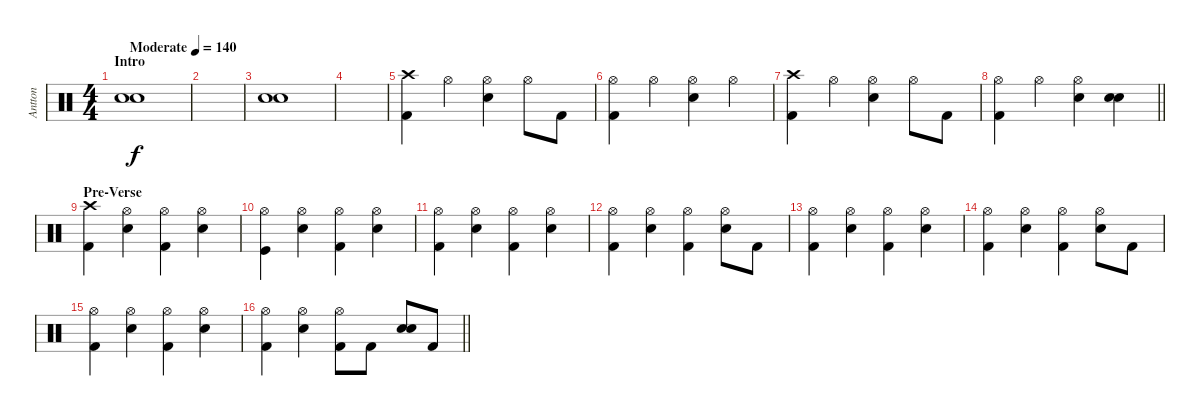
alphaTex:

\track ("Antton" "Antton") {instrument percussion}
\staff {score}
\articulation defaults
\ts (4 4)
\section ("" "Intro")
\tempo (140 "Moderate")
\clef neutral
\ks c
("Snare (hit) 2" "Snare (hit) 2").1{dy f} |
|
("Snare (hit) 2" "Snare (hit) 2").1 |
|
("Crash high (hit)" "Kick (hit) 2").4 "Hi-Hat (open)".4 ("Hi-Hat (open)" "Snare (hit) 2").4 "Hi-Hat (open)".8 "Kick (hit) 2".8 |
("Hi-Hat (open)" "Kick (hit) 2").4 "Hi-Hat (open)".4 ("Hi-Hat (open)" "Snare (hit) 2").4 "Hi-Hat (open)".4 |
("Crash high (hit)" "Kick (hit) 2").4 "Hi-Hat (open)".4 ("Hi-Hat (open)" "Snare (hit) 2").4 "Hi-Hat (open)".8 "Kick (hit) 2".8 |
\barLineRight lightlight
("Hi-Hat (open)" "Kick (hit) 2").4 "Hi-Hat (open)".4 ("Hi-Hat (open)" "Snare (hit) 2").4 ("Snare (hit) 2" "Snare (hit) 2").4 |
\section ("" "Pre-Verse")
("Crash high (hit)" "Kick (hit) 2").4 ("Hi-Hat (open)" "Snare (hit) 2").4 ("Hi-Hat (open)" "Kick (hit) 2").4 ("Hi-Hat (open)" "Snare (hit) 2").4 |
("Hi-Hat (open)" "Kick (hit)").4 ("Hi-Hat (open)" "Snare (hit) 2").4 ("Hi-Hat (open)" "Kick (hit) 2").4 ("Hi-Hat (open)" "Snare (hit) 2").4 |
("Hi-Hat (open)" "Kick (hit) 2").4 ("Hi-Hat (open)" "Snare (hit) 2").4 ("Hi-Hat (open)" "Kick (hit) 2").4 ("Hi-Hat (open)" "Snare (hit) 2").4 |
("Hi-Hat (open)" "Kick (hit) 2").4 ("Hi-Hat (open)" "Snare (hit) 2").4 ("Hi-Hat (open)" "Kick (hit) 2").4 ("Hi-Hat (open)" "Snare (hit) 2").8 "Kick (hit) 2".8 |
("Hi-Hat (open)" "Kick (hit) 2").4 ("Hi-Hat (open)" "Snare (hit) 2").4 ("Hi-Hat (open)" "Kick (hit) 2").4 ("Hi-Hat (open)" "Snare (hit) 2").4 |
("Hi-Hat (open)" "Kick (hit) 2").4 ("Hi-Hat (open)" "Snare (hit) 2").4 ("Hi-Hat (open)" "Kick (hit) 2").4 ("Hi-Hat (open)" "Snare (hit) 2").8 "Kick (hit) 2".8 |
("Hi-Hat (open)" "Kick (hit) 2").4 ("Hi-Hat (open)" "Snare (hit) 2").4 ("Hi-Hat (open)" "Kick (hit) 2").4 ("Hi-Hat (open)" "Snare (hit) 2").4 |
\barLineRight lightlight
("Hi-Hat (open)" "Kick (hit) 2").4 ("Hi-Hat (open)" "Snare (hit) 2").4 ("Hi-Hat (open)" "Kick (hit) 2").8 "Kick (hit) 2".8 ("Snare (hit) 2" "Snare (hit) 2").8 "Kick (hit) 2".8
